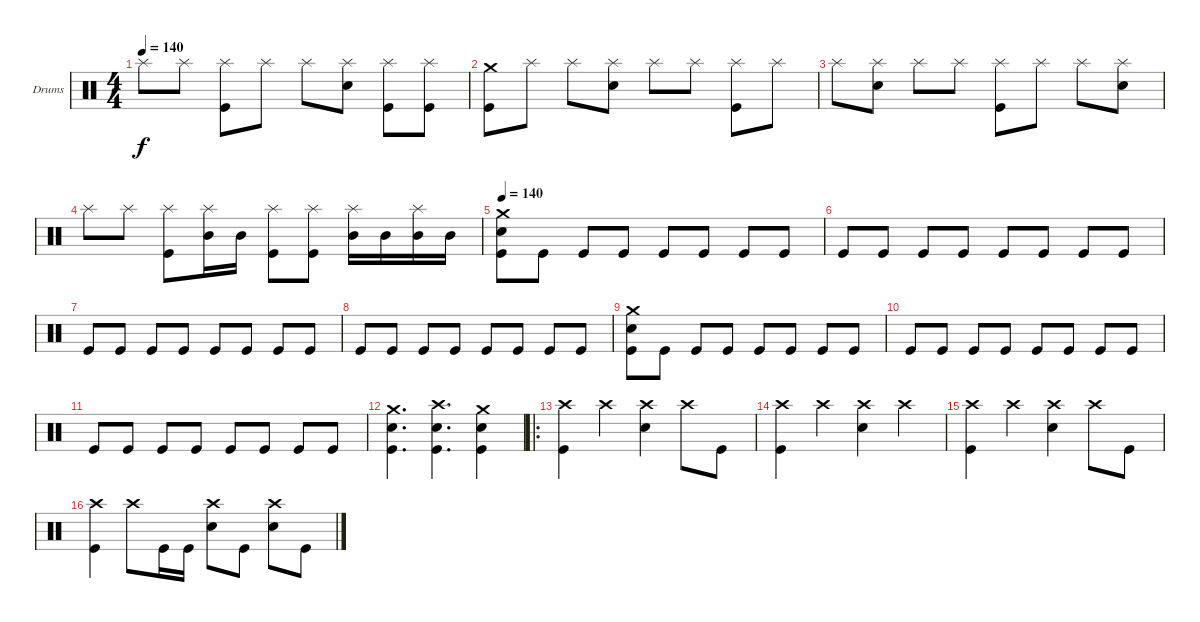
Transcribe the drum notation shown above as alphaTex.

\bracketExtendMode groupsimilarinstruments
\firstSystemTrackNameOrientation horizontal
\otherSystemsTrackNameOrientation horizontal
\track ("Drumkit" "Drums") {instrument percussion}
\staff {score}
\articulation defaults
\ts (4 4)
\tempo 140
\clef neutral
\ks c "Splash (hit)".8{dy f} "Splash (hit)".8
("Kick (hit)" "Splash (hit)").8 "Splash (hit)".8 "Splash (hit)".8 ("Snare (hit) 2" "Splash (hit)").8 ("Kick (hit)" "Splash (hit)").8 ("Kick (hit)" "Splash (hit)").8 |
("Kick (hit)" "Crash medium (hit)").8 "Splash (hit)".8 "Splash (hit)".8 ("Snare (hit) 2" "Splash (hit)").8 "Splash (hit)".8 "Splash (hit)".8 ("Kick (hit)" "Splash (hit)").8 "Splash (hit)".8 |
"Splash (hit)".8 ("Snare (hit) 2" "Splash (hit)").8 "Splash (hit)".8 "Splash (hit)".8 ("Kick (hit)" "Splash (hit)").8 "Splash (hit)".8 "Splash (hit)".8 ("Snare (hit) 2" "Splash (hit)").8 |
"Splash (hit)".8 "Splash (hit)".8 ("Kick (hit)" "Splash (hit)").8 ("Mid Tom (hit)" "Splash (hit)").16 "Mid Tom (hit)".16 ("Kick (hit)" "Splash (hit)").8 ("Kick (hit)" "Splash (hit)").8 ("Mid Tom (hit)" "Splash (hit)").16 "Mid Tom (hit)".16 ("Mid Tom (hit)" "Splash (hit)").16 "Mid Tom (hit)".16 |
\tempo 140
("Kick (hit)" "Snare (hit) 2" "Crash medium (hit)").8 "Kick (hit)".8 "Kick (hit)".8 "Kick (hit)".8 "Kick (hit)".8 "Kick (hit)".8 "Kick (hit)".8 "Kick (hit)".8 |
"Kick (hit)".8 "Kick (hit)".8 "Kick (hit)".8 "Kick (hit)".8 "Kick (hit)".8 "Kick (hit)".8 "Kick (hit)".8 "Kick (hit)".8 |
"Kick (hit)".8 "Kick (hit)".8 "Kick (hit)".8 "Kick (hit)".8 "Kick (hit)".8 "Kick (hit)".8 "Kick (hit)".8 "Kick (hit)".8 |
"Kick (hit)".8 "Kick (hit)".8 "Kick (hit)".8 "Kick (hit)".8 "Kick (hit)".8 "Kick (hit)".8 "Kick (hit)".8 "Kick (hit)".8 |
("Kick (hit)" "Snare (hit) 2" "Crash medium (hit)").8 "Kick (hit)".8 "Kick (hit)".8 "Kick (hit)".8 "Kick (hit)".8 "Kick (hit)".8 "Kick (hit)".8 "Kick (hit)".8 |
"Kick (hit)".8 "Kick (hit)".8 "Kick (hit)".8 "Kick (hit)".8 "Kick (hit)".8 "Kick (hit)".8 "Kick (hit)".8 "Kick (hit)".8 |
"Kick (hit)".8 "Kick (hit)".8 "Kick (hit)".8 "Kick (hit)".8 "Kick (hit)".8 "Kick (hit)".8 "Kick (hit)".8 "Kick (hit)".8 |
("Kick (hit)" "Snare (hit) 2" "Crash medium (hit)").4{d} ("Kick (hit)" "Snare (hit) 2" "Crash high (hit)").4{d} ("Kick (hit)" "Snare (hit) 2" "Crash medium (hit)").4 |
\ro
("Kick (hit)" "Crash high (hit)").4 "Crash high (hit)".4 ("Snare (hit) 2" "Crash high (hit)").4 "Crash high (hit)".8 "Kick (hit)".8 |
("Kick (hit)" "Crash high (hit)").4 "Crash high (hit)".4 ("Snare (hit) 2" "Crash high (hit)").4 "Crash high (hit)".4 |
("Kick (hit)" "Crash high (hit)").4 "Crash high (hit)".4 ("Snare (hit) 2" "Crash high (hit)").4 "Crash high (hit)".8 "Kick (hit)".8 |
("Kick (hit)" "Crash high (hit)").4 "Crash high (hit)".8 "Kick (hit)".16 "Kick (hit)".16 ("Snare (hit) 2" "Crash high (hit)").8 "Kick (hit)".8 ("Snare (hit) 2" "Crash high (hit)").8 "Kick (hit)".8
